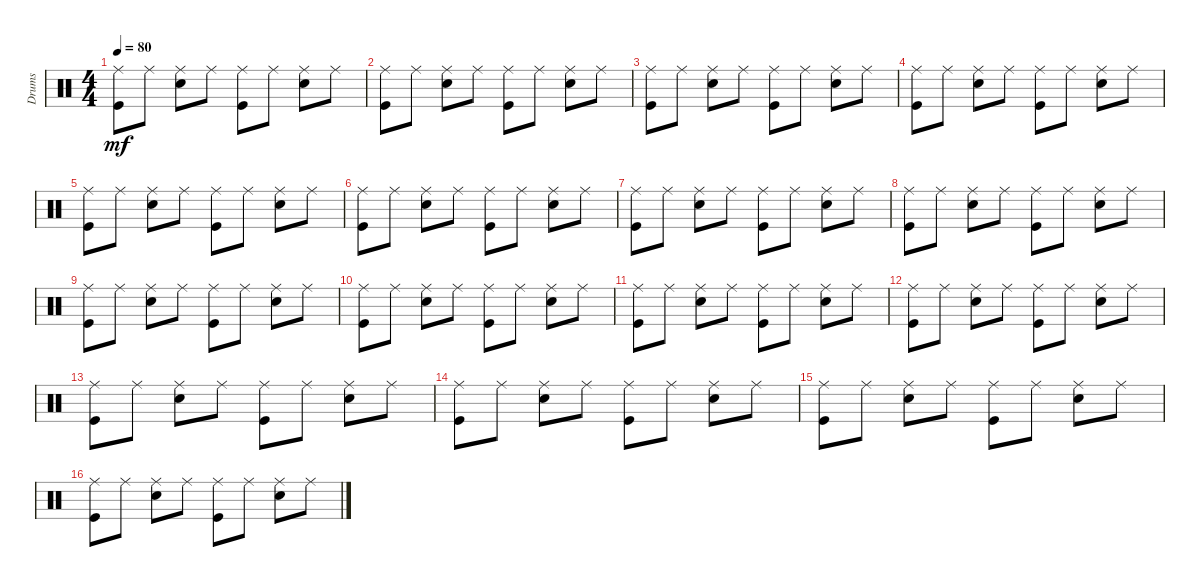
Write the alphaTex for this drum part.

\track ("Drums" "Drums") {instrument percussion}
\staff {score}
\articulation defaults
\ts (4 4)
\tempo 80
\clef neutral
\ks c
("Ride (middle)" "Kick (hit)").8{dy mf} "Ride (middle)".8 ("Ride (middle)" "Snare (hit) 2").8 "Ride (middle)".8 ("Ride (middle)" "Kick (hit)").8 "Ride (middle)".8 ("Ride (middle)" "Snare (hit) 2").8 "Ride (middle)".8 |
("Ride (middle)" "Kick (hit)").8 "Ride (middle)".8 ("Ride (middle)" "Snare (hit) 2").8 "Ride (middle)".8 ("Ride (middle)" "Kick (hit)").8 "Ride (middle)".8 ("Ride (middle)" "Snare (hit) 2").8 "Ride (middle)".8 |
("Ride (middle)" "Kick (hit)").8 "Ride (middle)".8 ("Ride (middle)" "Snare (hit) 2").8 "Ride (middle)".8 ("Ride (middle)" "Kick (hit)").8 "Ride (middle)".8 ("Ride (middle)" "Snare (hit) 2").8 "Ride (middle)".8 |
("Ride (middle)" "Kick (hit)").8 "Ride (middle)".8 ("Ride (middle)" "Snare (hit) 2").8 "Ride (middle)".8 ("Ride (middle)" "Kick (hit)").8 "Ride (middle)".8 ("Ride (middle)" "Snare (hit) 2").8 "Ride (middle)".8 |
("Ride (middle)" "Kick (hit)").8 "Ride (middle)".8 ("Ride (middle)" "Snare (hit) 2").8 "Ride (middle)".8 ("Ride (middle)" "Kick (hit)").8 "Ride (middle)".8 ("Ride (middle)" "Snare (hit) 2").8 "Ride (middle)".8 |
("Ride (middle)" "Kick (hit)").8 "Ride (middle)".8 ("Ride (middle)" "Snare (hit) 2").8 "Ride (middle)".8 ("Ride (middle)" "Kick (hit)").8 "Ride (middle)".8 ("Ride (middle)" "Snare (hit) 2").8 "Ride (middle)".8 |
("Ride (middle)" "Kick (hit)").8 "Ride (middle)".8 ("Ride (middle)" "Snare (hit) 2").8 "Ride (middle)".8 ("Ride (middle)" "Kick (hit)").8 "Ride (middle)".8 ("Ride (middle)" "Snare (hit) 2").8 "Ride (middle)".8 |
("Ride (middle)" "Kick (hit)").8 "Ride (middle)".8 ("Ride (middle)" "Snare (hit) 2").8 "Ride (middle)".8 ("Ride (middle)" "Kick (hit)").8 "Ride (middle)".8 ("Ride (middle)" "Snare (hit) 2").8 "Ride (middle)".8 |
("Ride (middle)" "Kick (hit)").8 "Ride (middle)".8 ("Ride (middle)" "Snare (hit) 2").8 "Ride (middle)".8 ("Ride (middle)" "Kick (hit)").8 "Ride (middle)".8 ("Ride (middle)" "Snare (hit) 2").8 "Ride (middle)".8 |
("Ride (middle)" "Kick (hit)").8 "Ride (middle)".8 ("Ride (middle)" "Snare (hit) 2").8 "Ride (middle)".8 ("Ride (middle)" "Kick (hit)").8 "Ride (middle)".8 ("Ride (middle)" "Snare (hit) 2").8 "Ride (middle)".8 |
("Ride (middle)" "Kick (hit)").8 "Ride (middle)".8 ("Ride (middle)" "Snare (hit) 2").8 "Ride (middle)".8 ("Ride (middle)" "Kick (hit)").8 "Ride (middle)".8 ("Ride (middle)" "Snare (hit) 2").8 "Ride (middle)".8 |
("Ride (middle)" "Kick (hit)").8 "Ride (middle)".8 ("Ride (middle)" "Snare (hit) 2").8 "Ride (middle)".8 ("Ride (middle)" "Kick (hit)").8 "Ride (middle)".8 ("Ride (middle)" "Snare (hit) 2").8 "Ride (middle)".8 |
("Ride (middle)" "Kick (hit)").8 "Ride (middle)".8 ("Ride (middle)" "Snare (hit) 2").8 "Ride (middle)".8 ("Ride (middle)" "Kick (hit)").8 "Ride (middle)".8 ("Ride (middle)" "Snare (hit) 2").8 "Ride (middle)".8 |
("Ride (middle)" "Kick (hit)").8 "Ride (middle)".8 ("Ride (middle)" "Snare (hit) 2").8 "Ride (middle)".8 ("Ride (middle)" "Kick (hit)").8 "Ride (middle)".8 ("Ride (middle)" "Snare (hit) 2").8 "Ride (middle)".8 |
("Ride (middle)" "Kick (hit)").8 "Ride (middle)".8 ("Ride (middle)" "Snare (hit) 2").8 "Ride (middle)".8 ("Ride (middle)" "Kick (hit)").8 "Ride (middle)".8 ("Ride (middle)" "Snare (hit) 2").8 "Ride (middle)".8 |
("Ride (middle)" "Kick (hit)").8 "Ride (middle)".8 ("Ride (middle)" "Snare (hit) 2").8 "Ride (middle)".8 ("Ride (middle)" "Kick (hit)").8 "Ride (middle)".8 ("Ride (middle)" "Snare (hit) 2").8 "Ride (middle)".8
